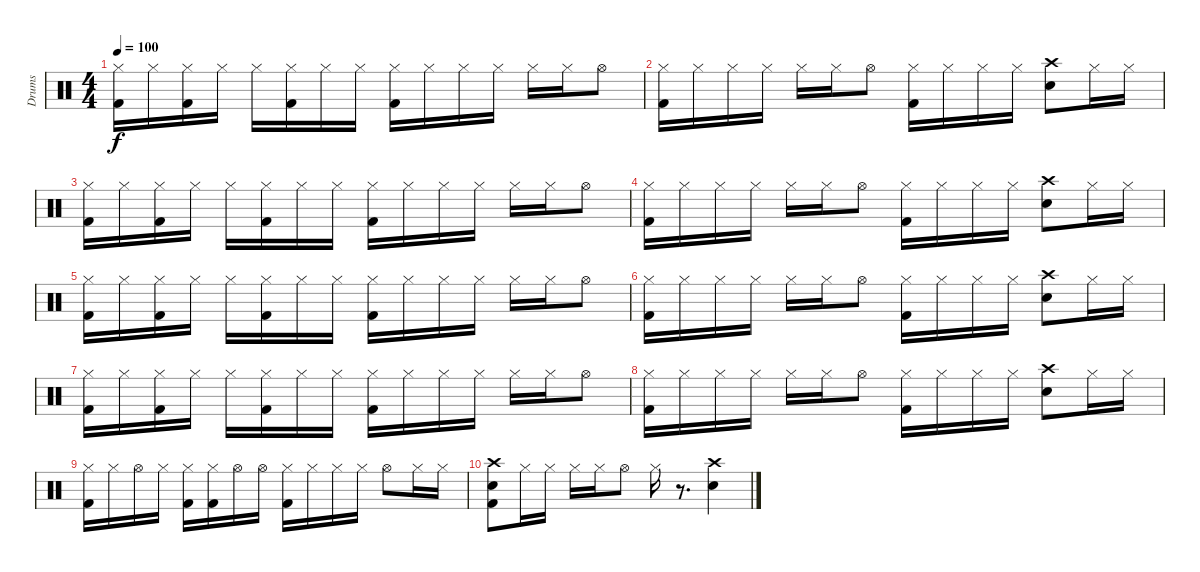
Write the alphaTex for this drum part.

\track ("Drums" "Drums") {instrument percussion}
\staff {score}
\articulation defaults
\ts (4 4)
\tempo 100
\clef neutral
\ks c
("Hi-Hat (closed)" "Kick (hit) 2").16{dy f} "Hi-Hat (closed)".16 ("Hi-Hat (closed)" "Kick (hit) 2").16 "Hi-Hat (closed)".16 "Hi-Hat (closed)".16 ("Hi-Hat (closed)" "Kick (hit) 2").16 "Hi-Hat (closed)".16 "Hi-Hat (closed)".16 ("Hi-Hat (closed)" "Kick (hit) 2").16 "Hi-Hat (closed)".16 "Hi-Hat (closed)".16 "Hi-Hat (closed)".16 "Hi-Hat (closed)".16 "Hi-Hat (closed)".16 "Hi-Hat (open)".8 |
("Hi-Hat (closed)" "Kick (hit) 2").16 "Hi-Hat (closed)".16 "Hi-Hat (closed)".16 "Hi-Hat (closed)".16 "Hi-Hat (closed)".16 "Hi-Hat (closed)".16 "Hi-Hat (open)".8 ("Hi-Hat (closed)" "Kick (hit) 2").16 "Hi-Hat (closed)".16 "Hi-Hat (closed)".16 "Hi-Hat (closed)".16 ("Crash high (hit)" "Electric Snare (hit)").8 "Hi-Hat (closed)".16 "Hi-Hat (closed)".16 |
("Hi-Hat (closed)" "Kick (hit) 2").16 "Hi-Hat (closed)".16 ("Hi-Hat (closed)" "Kick (hit) 2").16 "Hi-Hat (closed)".16 "Hi-Hat (closed)".16 ("Hi-Hat (closed)" "Kick (hit) 2").16 "Hi-Hat (closed)".16 "Hi-Hat (closed)".16 ("Hi-Hat (closed)" "Kick (hit) 2").16 "Hi-Hat (closed)".16 "Hi-Hat (closed)".16 "Hi-Hat (closed)".16 "Hi-Hat (closed)".16 "Hi-Hat (closed)".16 "Hi-Hat (open)".8 |
("Hi-Hat (closed)" "Kick (hit) 2").16 "Hi-Hat (closed)".16 "Hi-Hat (closed)".16 "Hi-Hat (closed)".16 "Hi-Hat (closed)".16 "Hi-Hat (closed)".16 "Hi-Hat (open)".8 ("Hi-Hat (closed)" "Kick (hit) 2").16 "Hi-Hat (closed)".16 "Hi-Hat (closed)".16 "Hi-Hat (closed)".16 ("Crash high (hit)" "Electric Snare (hit)").8 "Hi-Hat (closed)".16 "Hi-Hat (closed)".16 |
("Hi-Hat (closed)" "Kick (hit) 2").16 "Hi-Hat (closed)".16 ("Hi-Hat (closed)" "Kick (hit) 2").16 "Hi-Hat (closed)".16 "Hi-Hat (closed)".16 ("Hi-Hat (closed)" "Kick (hit) 2").16 "Hi-Hat (closed)".16 "Hi-Hat (closed)".16 ("Hi-Hat (closed)" "Kick (hit) 2").16 "Hi-Hat (closed)".16 "Hi-Hat (closed)".16 "Hi-Hat (closed)".16 "Hi-Hat (closed)".16 "Hi-Hat (closed)".16 "Hi-Hat (open)".8 |
("Hi-Hat (closed)" "Kick (hit) 2").16 "Hi-Hat (closed)".16 "Hi-Hat (closed)".16 "Hi-Hat (closed)".16 "Hi-Hat (closed)".16 "Hi-Hat (closed)".16 "Hi-Hat (open)".8 ("Hi-Hat (closed)" "Kick (hit) 2").16 "Hi-Hat (closed)".16 "Hi-Hat (closed)".16 "Hi-Hat (closed)".16 ("Crash high (hit)" "Electric Snare (hit)").8 "Hi-Hat (closed)".16 "Hi-Hat (closed)".16 |
("Hi-Hat (closed)" "Kick (hit) 2").16 "Hi-Hat (closed)".16 ("Hi-Hat (closed)" "Kick (hit) 2").16 "Hi-Hat (closed)".16 "Hi-Hat (closed)".16 ("Hi-Hat (closed)" "Kick (hit) 2").16 "Hi-Hat (closed)".16 "Hi-Hat (closed)".16 ("Hi-Hat (closed)" "Kick (hit) 2").16 "Hi-Hat (closed)".16 "Hi-Hat (closed)".16 "Hi-Hat (closed)".16 "Hi-Hat (closed)".16 "Hi-Hat (closed)".16 "Hi-Hat (open)".8 |
("Hi-Hat (closed)" "Kick (hit) 2").16 "Hi-Hat (closed)".16 "Hi-Hat (closed)".16 "Hi-Hat (closed)".16 "Hi-Hat (closed)".16 "Hi-Hat (closed)".16 "Hi-Hat (open)".8 ("Hi-Hat (closed)" "Kick (hit) 2").16 "Hi-Hat (closed)".16 "Hi-Hat (closed)".16 "Hi-Hat (closed)".16 ("Crash high (hit)" "Electric Snare (hit)").8 "Hi-Hat (closed)".16 "Hi-Hat (closed)".16 |
("Hi-Hat (closed)" "Kick (hit) 2").16 "Hi-Hat (closed)".16 "Hi-Hat (open)".16 "Hi-Hat (closed)".16 ("Hi-Hat (closed)" "Kick (hit) 2").16 ("Hi-Hat (closed)" "Kick (hit) 2").16 "Hi-Hat (open)".16 "Hi-Hat (open)".16 ("Hi-Hat (closed)" "Kick (hit) 2").16 "Hi-Hat (closed)".16 "Hi-Hat (closed)".16 "Hi-Hat (closed)".16 "Hi-Hat (open)".8 "Hi-Hat (closed)".16 "Hi-Hat (closed)".16 |
("Electric Snare (hit)" "Crash high (hit)" "Kick (hit) 2").8 "Hi-Hat (closed)".16 "Hi-Hat (closed)".16 "Hi-Hat (closed)".16 "Hi-Hat (closed)".16 "Hi-Hat (open)".8 "Hi-Hat (closed)".16 r.8{d} ("Crash high (hit)" "Electric Snare (hit)").4
